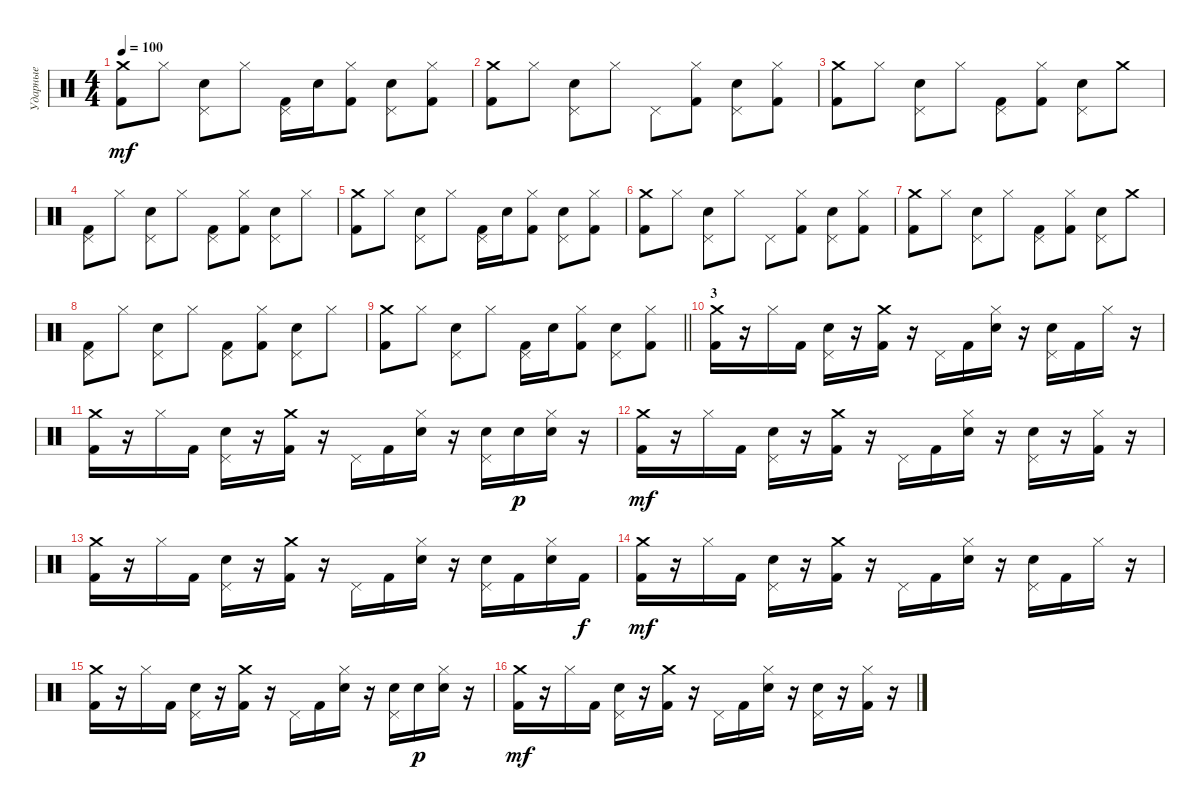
\track ("Ударные" "Ударные") {instrument percussion}
\staff {score}
\articulation defaults
\ts (4 4)
\tempo 100
\clef neutral
\ks c
("Crash medium (hit)" "Kick (hit) 2").8{dy mf} "Hi-Hat (closed)".8 ("Pedal Hi-Hat (hit)" "Snare (hit) 2").8 "Hi-Hat (closed)".8 ("Pedal Hi-Hat (hit)" "Kick (hit) 2").16 "Snare (hit) 2".16 ("Hi-Hat (closed)" "Kick (hit) 2").8 ("Pedal Hi-Hat (hit)" "Snare (hit) 2").8 ("Hi-Hat (closed)" "Kick (hit) 2").8 |
("Crash medium (hit)" "Kick (hit) 2").8 "Hi-Hat (closed)".8 ("Pedal Hi-Hat (hit)" "Snare (hit) 2").8 "Hi-Hat (closed)".8 "Pedal Hi-Hat (hit)".8 ("Hi-Hat (closed)" "Kick (hit) 2").8 ("Pedal Hi-Hat (hit)" "Snare (hit) 2").8 ("Hi-Hat (closed)" "Kick (hit) 2").8 |
("Crash medium (hit)" "Kick (hit) 2").8 "Hi-Hat (closed)".8 ("Pedal Hi-Hat (hit)" "Snare (hit) 2").8 "Hi-Hat (closed)".8 ("Pedal Hi-Hat (hit)" "Kick (hit) 2").8 ("Hi-Hat (closed)" "Kick (hit) 2").8 ("Pedal Hi-Hat (hit)" "Snare (hit) 2").8 "Crash medium (hit)".8 |
("Pedal Hi-Hat (hit)" "Kick (hit) 2").8 "Hi-Hat (closed)".8 ("Pedal Hi-Hat (hit)" "Snare (hit) 2").8 "Hi-Hat (closed)".8 ("Pedal Hi-Hat (hit)" "Kick (hit) 2").8 ("Hi-Hat (closed)" "Kick (hit) 2").8 ("Pedal Hi-Hat (hit)" "Snare (hit) 2").8 "Hi-Hat (closed)".8 |
("Crash medium (hit)" "Kick (hit) 2").8 "Hi-Hat (closed)".8 ("Pedal Hi-Hat (hit)" "Snare (hit) 2").8 "Hi-Hat (closed)".8 ("Pedal Hi-Hat (hit)" "Kick (hit) 2").16 "Snare (hit) 2".16 ("Hi-Hat (closed)" "Kick (hit) 2").8 ("Pedal Hi-Hat (hit)" "Snare (hit) 2").8 ("Hi-Hat (closed)" "Kick (hit) 2").8 |
("Crash medium (hit)" "Kick (hit) 2").8 "Hi-Hat (closed)".8 ("Pedal Hi-Hat (hit)" "Snare (hit) 2").8 "Hi-Hat (closed)".8 "Pedal Hi-Hat (hit)".8 ("Hi-Hat (closed)" "Kick (hit) 2").8 ("Pedal Hi-Hat (hit)" "Snare (hit) 2").8 ("Hi-Hat (closed)" "Kick (hit) 2").8 |
("Crash medium (hit)" "Kick (hit) 2").8 "Hi-Hat (closed)".8 ("Pedal Hi-Hat (hit)" "Snare (hit) 2").8 "Hi-Hat (closed)".8 ("Pedal Hi-Hat (hit)" "Kick (hit) 2").8 ("Hi-Hat (closed)" "Kick (hit) 2").8 ("Pedal Hi-Hat (hit)" "Snare (hit) 2").8 "Crash medium (hit)".8 |
("Pedal Hi-Hat (hit)" "Kick (hit) 2").8 "Hi-Hat (closed)".8 ("Pedal Hi-Hat (hit)" "Snare (hit) 2").8 "Hi-Hat (closed)".8 ("Pedal Hi-Hat (hit)" "Kick (hit) 2").8 ("Hi-Hat (closed)" "Kick (hit) 2").8 ("Pedal Hi-Hat (hit)" "Snare (hit) 2").8 "Hi-Hat (closed)".8 |
\barLineRight lightlight
("Crash medium (hit)" "Kick (hit) 2").8 "Hi-Hat (closed)".8 ("Pedal Hi-Hat (hit)" "Snare (hit) 2").8 "Hi-Hat (closed)".8 ("Pedal Hi-Hat (hit)" "Kick (hit) 2").16 "Snare (hit) 2".16 ("Hi-Hat (closed)" "Kick (hit) 2").8 ("Pedal Hi-Hat (hit)" "Snare (hit) 2").8 ("Hi-Hat (closed)" "Kick (hit) 2").8 |
\section ("" "3")
("Crash medium (hit)" "Kick (hit) 2").16 r.16 "Hi-Hat (closed)".16 "Kick (hit) 2".16 ("Pedal Hi-Hat (hit)" "Snare (hit) 2").16 r.16 ("Crash medium (hit)" "Kick (hit) 2").16 r.16 "Pedal Hi-Hat (hit)".16 "Kick (hit) 2".16 ("Hi-Hat (closed)" "Snare (hit) 2").16 r.16 ("Pedal Hi-Hat (hit)" "Snare (hit) 2").16 "Kick (hit) 2".16 "Hi-Hat (closed)".16 r.16 |
("Crash medium (hit)" "Kick (hit) 2").16 r.16 "Hi-Hat (closed)".16 "Kick (hit) 2".16 ("Pedal Hi-Hat (hit)" "Snare (hit) 2").16 r.16 ("Crash medium (hit)" "Kick (hit) 2").16 r.16 "Pedal Hi-Hat (hit)".16 "Kick (hit) 2".16 ("Hi-Hat (closed)" "Snare (hit) 2").16 r.16 ("Pedal Hi-Hat (hit)" "Snare (hit) 2").16 "Snare (hit) 2".16{dy p} ("Hi-Hat (closed)" "Snare (hit) 2").16 r.16 |
("Crash medium (hit)" "Kick (hit) 2").16{dy mf} r.16 "Hi-Hat (closed)".16 "Kick (hit) 2".16 ("Pedal Hi-Hat (hit)" "Snare (hit) 2").16 r.16 ("Crash medium (hit)" "Kick (hit) 2").16 r.16 "Pedal Hi-Hat (hit)".16 "Kick (hit) 2".16 ("Hi-Hat (closed)" "Snare (hit) 2").16 r.16 ("Pedal Hi-Hat (hit)" "Snare (hit) 2").16 r.16 ("Hi-Hat (closed)" "Kick (hit) 2").16 r.16 |
("Crash medium (hit)" "Kick (hit) 2").16 r.16 "Hi-Hat (closed)".16 "Kick (hit) 2".16 ("Pedal Hi-Hat (hit)" "Snare (hit) 2").16 r.16 ("Crash medium (hit)" "Kick (hit) 2").16 r.16 "Pedal Hi-Hat (hit)".16 "Kick (hit) 2".16 ("Hi-Hat (closed)" "Snare (hit) 2").16 r.16 ("Pedal Hi-Hat (hit)" "Snare (hit) 2").16 "Kick (hit) 2".16 ("Hi-Hat (closed)" "Snare (hit) 2").16 "Kick (hit) 2".16{dy f} |
("Crash medium (hit)" "Kick (hit) 2").16{dy mf} r.16 "Hi-Hat (closed)".16 "Kick (hit) 2".16 ("Pedal Hi-Hat (hit)" "Snare (hit) 2").16 r.16 ("Crash medium (hit)" "Kick (hit) 2").16 r.16 "Pedal Hi-Hat (hit)".16 "Kick (hit) 2".16 ("Hi-Hat (closed)" "Snare (hit) 2").16 r.16 ("Pedal Hi-Hat (hit)" "Snare (hit) 2").16 "Kick (hit) 2".16 "Hi-Hat (closed)".16 r.16 |
("Crash medium (hit)" "Kick (hit) 2").16 r.16 "Hi-Hat (closed)".16 "Kick (hit) 2".16 ("Pedal Hi-Hat (hit)" "Snare (hit) 2").16 r.16 ("Crash medium (hit)" "Kick (hit) 2").16 r.16 "Pedal Hi-Hat (hit)".16 "Kick (hit) 2".16 ("Hi-Hat (closed)" "Snare (hit) 2").16 r.16 ("Pedal Hi-Hat (hit)" "Snare (hit) 2").16 "Snare (hit) 2".16{dy p} ("Hi-Hat (closed)" "Snare (hit) 2").16 r.16 |
("Crash medium (hit)" "Kick (hit) 2").16{dy mf} r.16 "Hi-Hat (closed)".16 "Kick (hit) 2".16 ("Pedal Hi-Hat (hit)" "Snare (hit) 2").16 r.16 ("Crash medium (hit)" "Kick (hit) 2").16 r.16 "Pedal Hi-Hat (hit)".16 "Kick (hit) 2".16 ("Hi-Hat (closed)" "Snare (hit) 2").16 r.16 ("Pedal Hi-Hat (hit)" "Snare (hit) 2").16 r.16 ("Hi-Hat (closed)" "Kick (hit) 2").16 r.16
